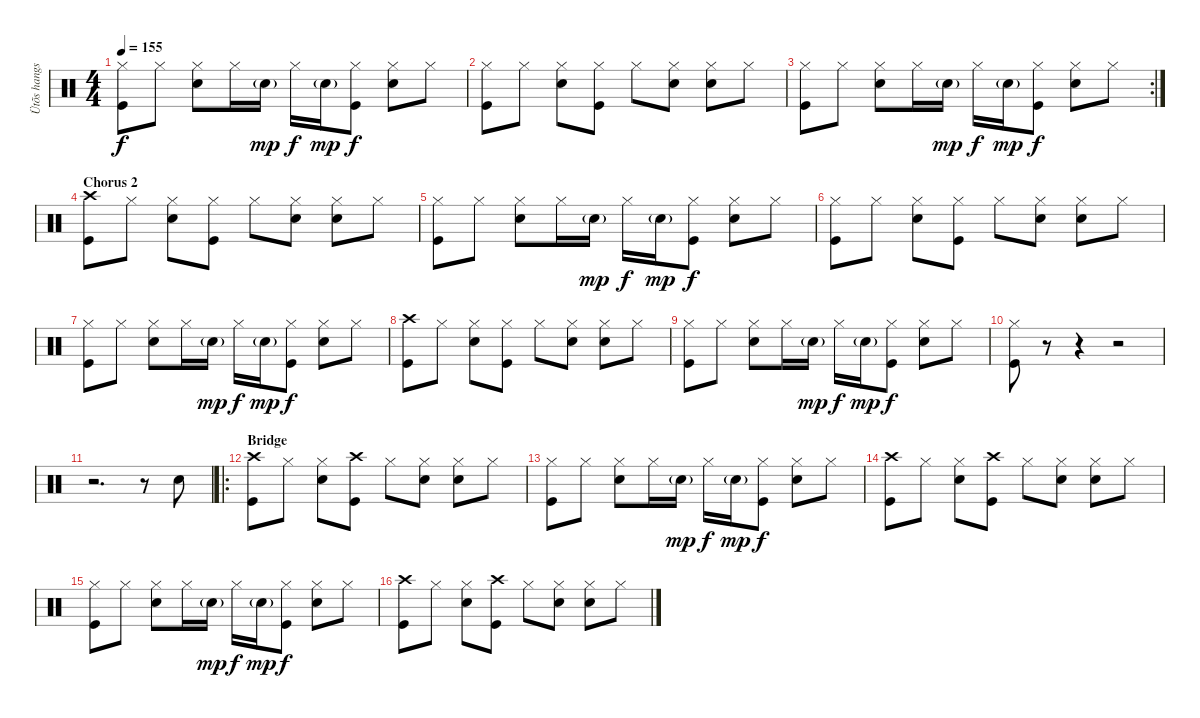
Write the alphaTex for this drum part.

\track ("Ütõs hangszer" "Ütõs hangs") {instrument percussion}
\staff {score}
\articulation defaults
\ts (4 4)
\tempo 155
\clef neutral
\ks c
("Hi-Hat (closed)" "Kick (hit)").8{dy f} "Hi-Hat (closed)".8 ("Hi-Hat (closed)" "Electric Snare (hit)").8 "Hi-Hat (closed)".16 "Electric Snare (hit)"{g}.16{dy mp} "Hi-Hat (closed)".16{dy f} "Electric Snare (hit)"{g}.16{dy mp} ("Hi-Hat (closed)" "Kick (hit)").8{dy f} ("Hi-Hat (closed)" "Electric Snare (hit)").8 "Hi-Hat (closed)".8 |
("Hi-Hat (closed)" "Kick (hit)").8 "Hi-Hat (closed)".8 ("Hi-Hat (closed)" "Electric Snare (hit)").8 ("Hi-Hat (closed)" "Kick (hit)").8 "Hi-Hat (closed)".8 ("Hi-Hat (closed)" "Electric Snare (hit)").8 ("Hi-Hat (closed)" "Electric Snare (hit)").8 "Hi-Hat (closed)".8 |
\rc 2
("Hi-Hat (closed)" "Kick (hit)").8 "Hi-Hat (closed)".8 ("Hi-Hat (closed)" "Electric Snare (hit)").8 "Hi-Hat (closed)".16 "Electric Snare (hit)"{g}.16{dy mp} "Hi-Hat (closed)".16{dy f} "Electric Snare (hit)"{g}.16{dy mp} ("Hi-Hat (closed)" "Kick (hit)").8{dy f} ("Hi-Hat (closed)" "Electric Snare (hit)").8 "Hi-Hat (closed)".8 |
\section ("" "Chorus 2")
("Crash high (hit)" "Kick (hit)").8 "Hi-Hat (closed)".8 ("Hi-Hat (closed)" "Electric Snare (hit)").8 ("Hi-Hat (closed)" "Kick (hit)").8 "Hi-Hat (closed)".8 ("Hi-Hat (closed)" "Electric Snare (hit)").8 ("Hi-Hat (closed)" "Electric Snare (hit)").8 "Hi-Hat (closed)".8 |
("Hi-Hat (closed)" "Kick (hit)").8 "Hi-Hat (closed)".8 ("Hi-Hat (closed)" "Electric Snare (hit)").8 "Hi-Hat (closed)".16 "Electric Snare (hit)"{g}.16{dy mp} "Hi-Hat (closed)".16{dy f} "Electric Snare (hit)"{g}.16{dy mp} ("Hi-Hat (closed)" "Kick (hit)").8{dy f} ("Hi-Hat (closed)" "Electric Snare (hit)").8 "Hi-Hat (closed)".8 |
("Hi-Hat (closed)" "Kick (hit)").8 "Hi-Hat (closed)".8 ("Hi-Hat (closed)" "Electric Snare (hit)").8 ("Hi-Hat (closed)" "Kick (hit)").8 "Hi-Hat (closed)".8 ("Hi-Hat (closed)" "Electric Snare (hit)").8 ("Hi-Hat (closed)" "Electric Snare (hit)").8 "Hi-Hat (closed)".8 |
("Hi-Hat (closed)" "Kick (hit)").8 "Hi-Hat (closed)".8 ("Hi-Hat (closed)" "Electric Snare (hit)").8 "Hi-Hat (closed)".16 "Electric Snare (hit)"{g}.16{dy mp} "Hi-Hat (closed)".16{dy f} "Electric Snare (hit)"{g}.16{dy mp} ("Hi-Hat (closed)" "Kick (hit)").8{dy f} ("Hi-Hat (closed)" "Electric Snare (hit)").8 "Hi-Hat (closed)".8 |
("Crash high (hit)" "Kick (hit)").8 "Hi-Hat (closed)".8 ("Hi-Hat (closed)" "Electric Snare (hit)").8 ("Hi-Hat (closed)" "Kick (hit)").8 "Hi-Hat (closed)".8 ("Hi-Hat (closed)" "Electric Snare (hit)").8 ("Hi-Hat (closed)" "Electric Snare (hit)").8 "Hi-Hat (closed)".8 |
("Hi-Hat (closed)" "Kick (hit)").8 "Hi-Hat (closed)".8 ("Hi-Hat (closed)" "Electric Snare (hit)").8 "Hi-Hat (closed)".16 "Electric Snare (hit)"{g}.16{dy mp} "Hi-Hat (closed)".16{dy f} "Electric Snare (hit)"{g}.16{dy mp} ("Hi-Hat (closed)" "Kick (hit)").8{dy f} ("Hi-Hat (closed)" "Electric Snare (hit)").8 "Hi-Hat (closed)".8 |
("Hi-Hat (closed)" "Kick (hit)").8 r.8 r.4 r.2 |
r.2{d} r.8 "Electric Snare (hit)".8 |
\ro
\section ("" "Bridge")
("Crash high (hit)" "Kick (hit)").8 "Hi-Hat (closed)".8 ("Hi-Hat (closed)" "Electric Snare (hit)").8 ("Crash high (hit)" "Kick (hit)").8 "Hi-Hat (closed)".8 ("Hi-Hat (closed)" "Electric Snare (hit)").8 ("Hi-Hat (closed)" "Electric Snare (hit)").8 "Hi-Hat (closed)".8 |
("Hi-Hat (closed)" "Kick (hit)").8 "Hi-Hat (closed)".8 ("Hi-Hat (closed)" "Electric Snare (hit)").8 "Hi-Hat (closed)".16 "Electric Snare (hit)"{g}.16{dy mp} "Hi-Hat (closed)".16{dy f} "Electric Snare (hit)"{g}.16{dy mp} ("Hi-Hat (closed)" "Kick (hit)").8{dy f} ("Hi-Hat (closed)" "Electric Snare (hit)").8 "Hi-Hat (closed)".8 |
("Crash high (hit)" "Kick (hit)").8 "Hi-Hat (closed)".8 ("Hi-Hat (closed)" "Electric Snare (hit)").8 ("Crash high (hit)" "Kick (hit)").8 "Hi-Hat (closed)".8 ("Hi-Hat (closed)" "Electric Snare (hit)").8 ("Hi-Hat (closed)" "Electric Snare (hit)").8 "Hi-Hat (closed)".8 |
("Hi-Hat (closed)" "Kick (hit)").8 "Hi-Hat (closed)".8 ("Hi-Hat (closed)" "Electric Snare (hit)").8 "Hi-Hat (closed)".16 "Electric Snare (hit)"{g}.16{dy mp} "Hi-Hat (closed)".16{dy f} "Electric Snare (hit)"{g}.16{dy mp} ("Hi-Hat (closed)" "Kick (hit)").8{dy f} ("Hi-Hat (closed)" "Electric Snare (hit)").8 "Hi-Hat (closed)".8 |
("Crash high (hit)" "Kick (hit)").8 "Hi-Hat (closed)".8 ("Hi-Hat (closed)" "Electric Snare (hit)").8 ("Crash high (hit)" "Kick (hit)").8 "Hi-Hat (closed)".8 ("Hi-Hat (closed)" "Electric Snare (hit)").8 ("Hi-Hat (closed)" "Electric Snare (hit)").8 "Hi-Hat (closed)".8
